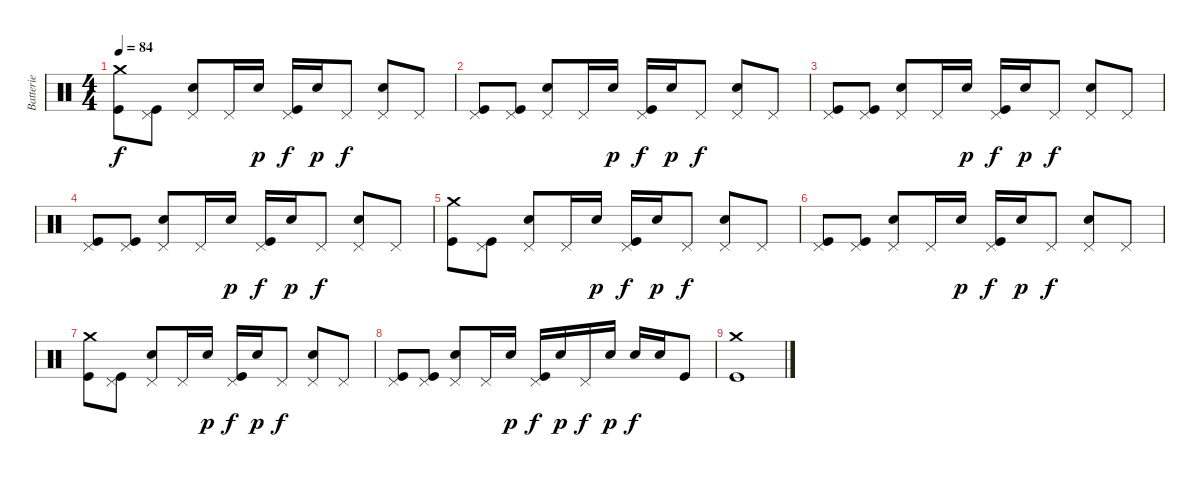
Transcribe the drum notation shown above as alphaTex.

\track ("Batterie" "Batterie") {instrument percussion}
\staff {score}
\articulation defaults
\ts (4 4)
\tempo 84
\clef neutral
\ks c
("Crash medium (hit)" "Kick (hit)").8{dy f} ("Pedal Hi-Hat (hit)" "Kick (hit)").8 ("Pedal Hi-Hat (hit)" "Electric Snare (hit)").8 "Pedal Hi-Hat (hit)".16 "Snare (hit) 2".16{dy p} ("Pedal Hi-Hat (hit)" "Kick (hit)").16{dy f} "Snare (hit) 2".16{dy p} "Pedal Hi-Hat (hit)".8{dy f} ("Pedal Hi-Hat (hit)" "Electric Snare (hit)").8 "Pedal Hi-Hat (hit)".8 |
("Pedal Hi-Hat (hit)" "Kick (hit)").8 ("Pedal Hi-Hat (hit)" "Kick (hit)").8 ("Pedal Hi-Hat (hit)" "Electric Snare (hit)").8 "Pedal Hi-Hat (hit)".16 "Snare (hit) 2".16{dy p} ("Pedal Hi-Hat (hit)" "Kick (hit)").16{dy f} "Snare (hit) 2".16{dy p} "Pedal Hi-Hat (hit)".8{dy f} ("Pedal Hi-Hat (hit)" "Electric Snare (hit)").8 "Pedal Hi-Hat (hit)".8 |
("Pedal Hi-Hat (hit)" "Kick (hit)").8 ("Pedal Hi-Hat (hit)" "Kick (hit)").8 ("Pedal Hi-Hat (hit)" "Electric Snare (hit)").8 "Pedal Hi-Hat (hit)".16 "Snare (hit) 2".16{dy p} ("Pedal Hi-Hat (hit)" "Kick (hit)").16{dy f} "Snare (hit) 2".16{dy p} "Pedal Hi-Hat (hit)".8{dy f} ("Pedal Hi-Hat (hit)" "Electric Snare (hit)").8 "Pedal Hi-Hat (hit)".8 |
("Pedal Hi-Hat (hit)" "Kick (hit)").8 ("Pedal Hi-Hat (hit)" "Kick (hit)").8 ("Pedal Hi-Hat (hit)" "Electric Snare (hit)").8 "Pedal Hi-Hat (hit)".16 "Snare (hit) 2".16{dy p} ("Pedal Hi-Hat (hit)" "Kick (hit)").16{dy f} "Snare (hit) 2".16{dy p} "Pedal Hi-Hat (hit)".8{dy f} ("Pedal Hi-Hat (hit)" "Electric Snare (hit)").8 "Pedal Hi-Hat (hit)".8 |
("Crash medium (hit)" "Kick (hit)").8 ("Pedal Hi-Hat (hit)" "Kick (hit)").8 ("Pedal Hi-Hat (hit)" "Electric Snare (hit)").8 "Pedal Hi-Hat (hit)".16 "Snare (hit) 2".16{dy p} ("Pedal Hi-Hat (hit)" "Kick (hit)").16{dy f} "Snare (hit) 2".16{dy p} "Pedal Hi-Hat (hit)".8{dy f} ("Pedal Hi-Hat (hit)" "Electric Snare (hit)").8 "Pedal Hi-Hat (hit)".8 |
("Pedal Hi-Hat (hit)" "Kick (hit)").8 ("Pedal Hi-Hat (hit)" "Kick (hit)").8 ("Pedal Hi-Hat (hit)" "Electric Snare (hit)").8 "Pedal Hi-Hat (hit)".16 "Snare (hit) 2".16{dy p} ("Pedal Hi-Hat (hit)" "Kick (hit)").16{dy f} "Snare (hit) 2".16{dy p} "Pedal Hi-Hat (hit)".8{dy f} ("Pedal Hi-Hat (hit)" "Electric Snare (hit)").8 "Pedal Hi-Hat (hit)".8 |
("Crash medium (hit)" "Kick (hit)").8 ("Pedal Hi-Hat (hit)" "Kick (hit)").8 ("Pedal Hi-Hat (hit)" "Electric Snare (hit)").8 "Pedal Hi-Hat (hit)".16 "Snare (hit) 2".16{dy p} ("Pedal Hi-Hat (hit)" "Kick (hit)").16{dy f} "Snare (hit) 2".16{dy p} "Pedal Hi-Hat (hit)".8{dy f} ("Pedal Hi-Hat (hit)" "Electric Snare (hit)").8 "Pedal Hi-Hat (hit)".8 |
("Pedal Hi-Hat (hit)" "Kick (hit)").8 ("Pedal Hi-Hat (hit)" "Kick (hit)").8 ("Pedal Hi-Hat (hit)" "Electric Snare (hit)").8 "Pedal Hi-Hat (hit)".16 "Snare (hit) 2".16{dy p} ("Pedal Hi-Hat (hit)" "Kick (hit)").16{dy f} "Snare (hit) 2".16{dy p} "Pedal Hi-Hat (hit)".16{dy f} "Snare (hit) 2".16{dy p} "Electric Snare (hit)".16{dy f} "Electric Snare (hit)".16 "Kick (hit)".8 |
("Crash medium (hit)" "Kick (hit)").1
